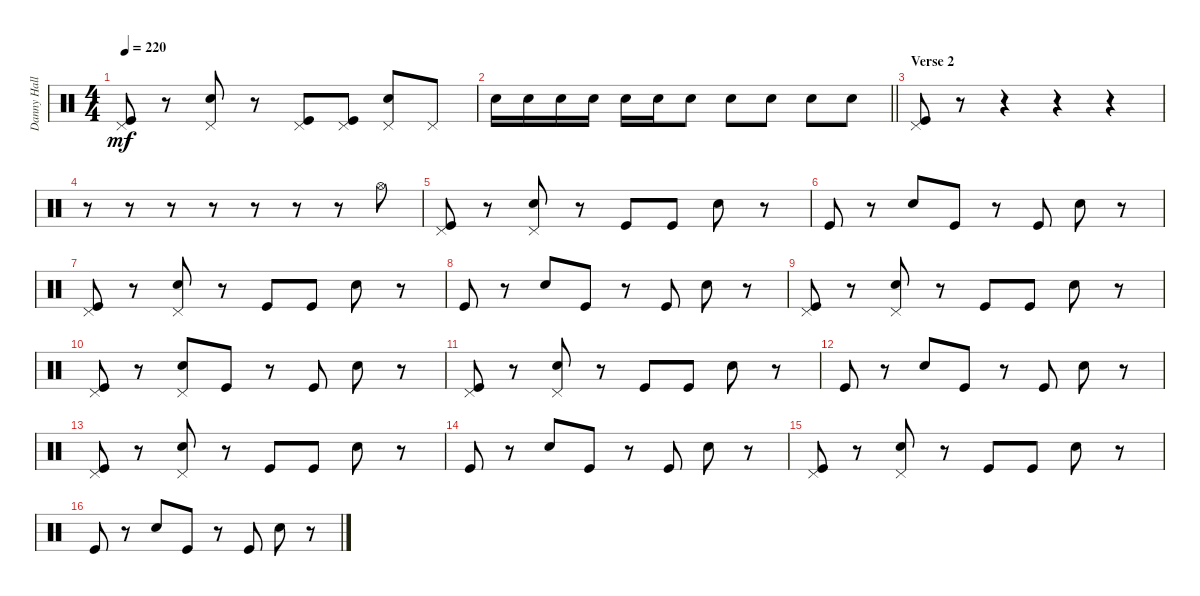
\track ("Danny Hall" "Danny Hall") {instrument percussion}
\staff {score}
\articulation defaults
\ts (4 4)
\tempo 220
\clef neutral
\ks c
("Pedal Hi-Hat (hit)" "Kick (hit)").8{dy mf} r.8 ("Pedal Hi-Hat (hit)" "Snare (hit) 2").8 r.8 ("Pedal Hi-Hat (hit)" "Kick (hit)").8 ("Pedal Hi-Hat (hit)" "Kick (hit)").8 ("Pedal Hi-Hat (hit)" "Snare (hit) 2").8 "Pedal Hi-Hat (hit)".8 |
\barLineRight lightlight "Snare (hit) 2".16 "Snare (hit) 2".16 "Snare (hit) 2".16 "Snare (hit) 2".16 "Snare (hit) 2".16 "Snare (hit) 2".16 "Snare (hit) 2".8 "Snare (hit) 2".8 "Snare (hit) 2".8 "Snare (hit) 2".8 "Snare (hit) 2".8
|
\section ("" "Verse 2")
("Pedal Hi-Hat (hit)" "Kick (hit)").8 r.8 r.4 r.4 r.4 |
r.8 r.8 r.8 r.8 r.8 r.8 r.8 "Hi-Hat (open)".8 |
("Pedal Hi-Hat (hit)" "Kick (hit)").8 r.8 ("Pedal Hi-Hat (hit)" "Snare (hit) 2").8 r.8 "Kick (hit)".8 "Kick (hit)".8 "Snare (hit) 2".8 r.8 |
"Kick (hit)".8 r.8 "Snare (hit) 2".8 "Kick (hit)".8 r.8 "Kick (hit)".8 "Snare (hit) 2".8 r.8 |
("Pedal Hi-Hat (hit)" "Kick (hit)").8 r.8 ("Pedal Hi-Hat (hit)" "Snare (hit) 2").8 r.8 "Kick (hit)".8 "Kick (hit)".8 "Snare (hit) 2".8 r.8 |
"Kick (hit)".8 r.8 "Snare (hit) 2".8 "Kick (hit)".8 r.8 "Kick (hit)".8 "Snare (hit) 2".8 r.8 |
("Pedal Hi-Hat (hit)" "Kick (hit)").8 r.8 ("Pedal Hi-Hat (hit)" "Snare (hit) 2").8 r.8 "Kick (hit)".8 "Kick (hit)".8 "Snare (hit) 2".8 r.8 |
("Pedal Hi-Hat (hit)" "Kick (hit)").8 r.8 ("Pedal Hi-Hat (hit)" "Snare (hit) 2").8 "Kick (hit)".8 r.8 "Kick (hit)".8 "Snare (hit) 2".8 r.8 |
("Pedal Hi-Hat (hit)" "Kick (hit)").8 r.8 ("Pedal Hi-Hat (hit)" "Snare (hit) 2").8 r.8 "Kick (hit)".8 "Kick (hit)".8 "Snare (hit) 2".8 r.8 |
"Kick (hit)".8 r.8 "Snare (hit) 2".8 "Kick (hit)".8 r.8 "Kick (hit)".8 "Snare (hit) 2".8 r.8 |
("Pedal Hi-Hat (hit)" "Kick (hit)").8 r.8 ("Pedal Hi-Hat (hit)" "Snare (hit) 2").8 r.8 "Kick (hit)".8 "Kick (hit)".8 "Snare (hit) 2".8 r.8 |
"Kick (hit)".8 r.8 "Snare (hit) 2".8 "Kick (hit)".8 r.8 "Kick (hit)".8 "Snare (hit) 2".8 r.8 |
("Pedal Hi-Hat (hit)" "Kick (hit)").8 r.8 ("Pedal Hi-Hat (hit)" "Snare (hit) 2").8 r.8 "Kick (hit)".8 "Kick (hit)".8 "Snare (hit) 2".8 r.8 |
"Kick (hit)".8 r.8 "Snare (hit) 2".8 "Kick (hit)".8 r.8 "Kick (hit)".8 "Snare (hit) 2".8 r.8
